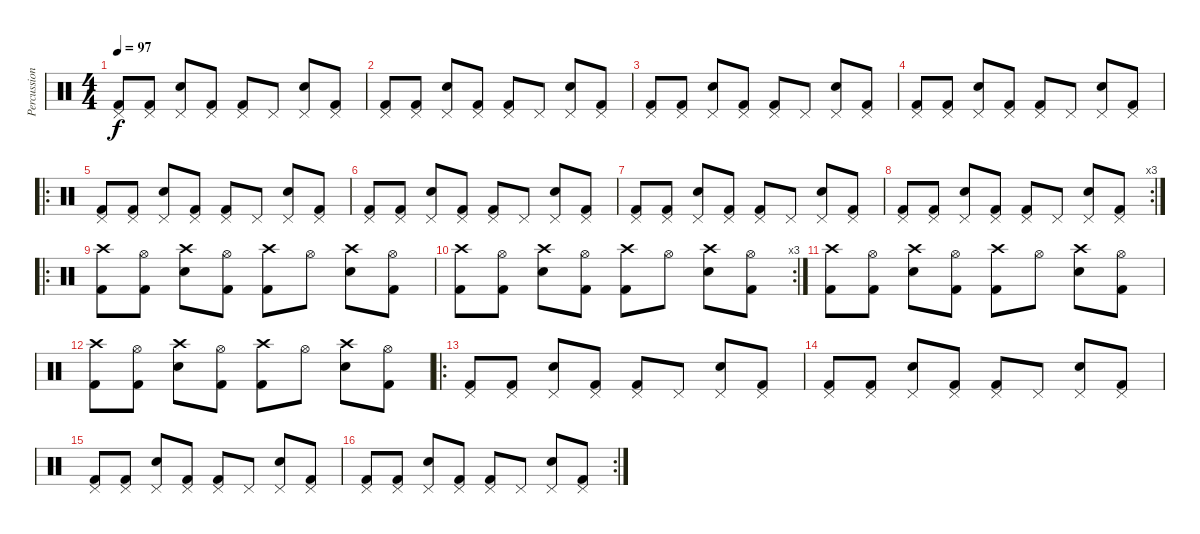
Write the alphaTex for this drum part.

\track ("Percussioni" "Percussion") {instrument percussion}
\staff {score}
\articulation defaults
\ts (4 4)
\tempo 97
\clef neutral
\ks c
("Pedal Hi-Hat (hit)" "Kick (hit) 2").8{dy f} ("Pedal Hi-Hat (hit)" "Kick (hit) 2").8 ("Pedal Hi-Hat (hit)" "Snare (hit) 2").8 ("Pedal Hi-Hat (hit)" "Kick (hit) 2").8 ("Pedal Hi-Hat (hit)" "Kick (hit) 2").8 "Pedal Hi-Hat (hit)".8 ("Pedal Hi-Hat (hit)" "Snare (hit) 2").8 ("Pedal Hi-Hat (hit)" "Kick (hit) 2").8 |
("Pedal Hi-Hat (hit)" "Kick (hit) 2").8 ("Pedal Hi-Hat (hit)" "Kick (hit) 2").8 ("Pedal Hi-Hat (hit)" "Snare (hit) 2").8 ("Pedal Hi-Hat (hit)" "Kick (hit) 2").8 ("Pedal Hi-Hat (hit)" "Kick (hit) 2").8 "Pedal Hi-Hat (hit)".8 ("Pedal Hi-Hat (hit)" "Snare (hit) 2").8 ("Pedal Hi-Hat (hit)" "Kick (hit) 2").8 |
("Pedal Hi-Hat (hit)" "Kick (hit) 2").8 ("Pedal Hi-Hat (hit)" "Kick (hit) 2").8 ("Pedal Hi-Hat (hit)" "Snare (hit) 2").8 ("Pedal Hi-Hat (hit)" "Kick (hit) 2").8 ("Pedal Hi-Hat (hit)" "Kick (hit) 2").8 "Pedal Hi-Hat (hit)".8 ("Pedal Hi-Hat (hit)" "Snare (hit) 2").8 ("Pedal Hi-Hat (hit)" "Kick (hit) 2").8 |
("Pedal Hi-Hat (hit)" "Kick (hit) 2").8 ("Pedal Hi-Hat (hit)" "Kick (hit) 2").8 ("Pedal Hi-Hat (hit)" "Snare (hit) 2").8 ("Pedal Hi-Hat (hit)" "Kick (hit) 2").8 ("Pedal Hi-Hat (hit)" "Kick (hit) 2").8 "Pedal Hi-Hat (hit)".8 ("Pedal Hi-Hat (hit)" "Snare (hit) 2").8 ("Pedal Hi-Hat (hit)" "Kick (hit) 2").8 |
\ro
("Pedal Hi-Hat (hit)" "Kick (hit) 2").8 ("Pedal Hi-Hat (hit)" "Kick (hit) 2").8 ("Pedal Hi-Hat (hit)" "Snare (hit) 2").8 ("Pedal Hi-Hat (hit)" "Kick (hit) 2").8 ("Pedal Hi-Hat (hit)" "Kick (hit) 2").8 "Pedal Hi-Hat (hit)".8 ("Pedal Hi-Hat (hit)" "Snare (hit) 2").8 ("Pedal Hi-Hat (hit)" "Kick (hit) 2").8 |
("Pedal Hi-Hat (hit)" "Kick (hit) 2").8 ("Pedal Hi-Hat (hit)" "Kick (hit) 2").8 ("Pedal Hi-Hat (hit)" "Snare (hit) 2").8 ("Pedal Hi-Hat (hit)" "Kick (hit) 2").8 ("Pedal Hi-Hat (hit)" "Kick (hit) 2").8 "Pedal Hi-Hat (hit)".8 ("Pedal Hi-Hat (hit)" "Snare (hit) 2").8 ("Pedal Hi-Hat (hit)" "Kick (hit) 2").8 |
("Pedal Hi-Hat (hit)" "Kick (hit) 2").8 ("Pedal Hi-Hat (hit)" "Kick (hit) 2").8 ("Pedal Hi-Hat (hit)" "Snare (hit) 2").8 ("Pedal Hi-Hat (hit)" "Kick (hit) 2").8 ("Pedal Hi-Hat (hit)" "Kick (hit) 2").8 "Pedal Hi-Hat (hit)".8 ("Pedal Hi-Hat (hit)" "Snare (hit) 2").8 ("Pedal Hi-Hat (hit)" "Kick (hit) 2").8 |
\rc 3
("Pedal Hi-Hat (hit)" "Kick (hit) 2").8 ("Pedal Hi-Hat (hit)" "Kick (hit) 2").8 ("Pedal Hi-Hat (hit)" "Snare (hit) 2").8 ("Pedal Hi-Hat (hit)" "Kick (hit) 2").8 ("Pedal Hi-Hat (hit)" "Kick (hit) 2").8 "Pedal Hi-Hat (hit)".8 ("Pedal Hi-Hat (hit)" "Snare (hit) 2").8 ("Pedal Hi-Hat (hit)" "Kick (hit) 2").8 |
\ro
("Crash high (hit)" "Kick (hit) 2").8 ("Hi-Hat (open)" "Kick (hit) 2").8 ("Crash high (hit)" "Snare (hit) 2").8 ("Hi-Hat (open)" "Kick (hit) 2").8 ("Crash high (hit)" "Kick (hit) 2").8 "Hi-Hat (open)".8 ("Crash high (hit)" "Snare (hit) 2").8 ("Hi-Hat (open)" "Kick (hit) 2").8 |
\rc 3
("Crash high (hit)" "Kick (hit) 2").8 ("Hi-Hat (open)" "Kick (hit) 2").8 ("Crash high (hit)" "Snare (hit) 2").8 ("Hi-Hat (open)" "Kick (hit) 2").8 ("Crash high (hit)" "Kick (hit) 2").8 "Hi-Hat (open)".8 ("Crash high (hit)" "Snare (hit) 2").8 ("Hi-Hat (open)" "Kick (hit) 2").8 |
("Crash high (hit)" "Kick (hit) 2").8 ("Hi-Hat (open)" "Kick (hit) 2").8 ("Crash high (hit)" "Snare (hit) 2").8 ("Hi-Hat (open)" "Kick (hit) 2").8 ("Crash high (hit)" "Kick (hit) 2").8 "Hi-Hat (open)".8 ("Crash high (hit)" "Snare (hit) 2").8 ("Hi-Hat (open)" "Kick (hit) 2").8 |
("Crash high (hit)" "Kick (hit) 2").8 ("Hi-Hat (open)" "Kick (hit) 2").8 ("Crash high (hit)" "Snare (hit) 2").8 ("Hi-Hat (open)" "Kick (hit) 2").8 ("Crash high (hit)" "Kick (hit) 2").8 "Hi-Hat (open)".8 ("Crash high (hit)" "Snare (hit) 2").8 ("Hi-Hat (open)" "Kick (hit) 2").8 |
\ro
("Pedal Hi-Hat (hit)" "Kick (hit) 2").8 ("Pedal Hi-Hat (hit)" "Kick (hit) 2").8 ("Pedal Hi-Hat (hit)" "Snare (hit) 2").8 ("Pedal Hi-Hat (hit)" "Kick (hit) 2").8 ("Pedal Hi-Hat (hit)" "Kick (hit) 2").8 "Pedal Hi-Hat (hit)".8 ("Pedal Hi-Hat (hit)" "Snare (hit) 2").8 ("Pedal Hi-Hat (hit)" "Kick (hit) 2").8 |
("Pedal Hi-Hat (hit)" "Kick (hit) 2").8 ("Pedal Hi-Hat (hit)" "Kick (hit) 2").8 ("Pedal Hi-Hat (hit)" "Snare (hit) 2").8 ("Pedal Hi-Hat (hit)" "Kick (hit) 2").8 ("Pedal Hi-Hat (hit)" "Kick (hit) 2").8 "Pedal Hi-Hat (hit)".8 ("Pedal Hi-Hat (hit)" "Snare (hit) 2").8 ("Pedal Hi-Hat (hit)" "Kick (hit) 2").8 |
("Pedal Hi-Hat (hit)" "Kick (hit) 2").8 ("Pedal Hi-Hat (hit)" "Kick (hit) 2").8 ("Pedal Hi-Hat (hit)" "Snare (hit) 2").8 ("Pedal Hi-Hat (hit)" "Kick (hit) 2").8 ("Pedal Hi-Hat (hit)" "Kick (hit) 2").8 "Pedal Hi-Hat (hit)".8 ("Pedal Hi-Hat (hit)" "Snare (hit) 2").8 ("Pedal Hi-Hat (hit)" "Kick (hit) 2").8 |
\rc 2
("Pedal Hi-Hat (hit)" "Kick (hit) 2").8 ("Pedal Hi-Hat (hit)" "Kick (hit) 2").8 ("Pedal Hi-Hat (hit)" "Snare (hit) 2").8 ("Pedal Hi-Hat (hit)" "Kick (hit) 2").8 ("Pedal Hi-Hat (hit)" "Kick (hit) 2").8 "Pedal Hi-Hat (hit)".8 ("Pedal Hi-Hat (hit)" "Snare (hit) 2").8 ("Pedal Hi-Hat (hit)" "Kick (hit) 2").8
